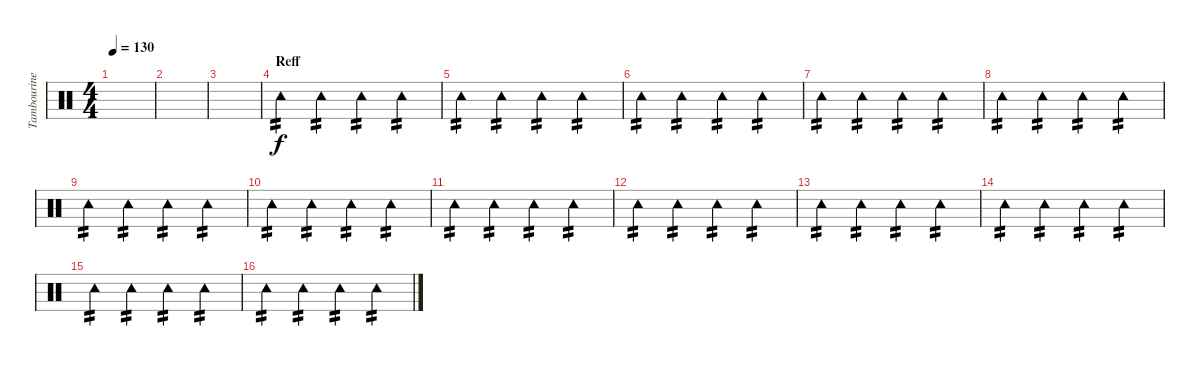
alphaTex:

\track ("Tambourine" "Tambourine") {instrument percussion}
\staff {score}
\articulation defaults
\ts (4 4)
\tempo 130
\clef neutral
\ks c
|
|
|
\section ("" "Reff")
"Tambourine (hit)".4{tp 2} "Tambourine (hit)".4{tp 2} "Tambourine (hit)".4{tp 2} "Tambourine (hit)".4{tp 2} |
"Tambourine (hit)".4{tp 2} "Tambourine (hit)".4{tp 2} "Tambourine (hit)".4{tp 2} "Tambourine (hit)".4{tp 2} |
"Tambourine (hit)".4{tp 2} "Tambourine (hit)".4{tp 2} "Tambourine (hit)".4{tp 2} "Tambourine (hit)".4{tp 2} |
"Tambourine (hit)".4{tp 2} "Tambourine (hit)".4{tp 2} "Tambourine (hit)".4{tp 2} "Tambourine (hit)".4{tp 2} |
"Tambourine (hit)".4{tp 2} "Tambourine (hit)".4{tp 2} "Tambourine (hit)".4{tp 2} "Tambourine (hit)".4{tp 2} |
"Tambourine (hit)".4{tp 2} "Tambourine (hit)".4{tp 2} "Tambourine (hit)".4{tp 2} "Tambourine (hit)".4{tp 2} |
"Tambourine (hit)".4{tp 2} "Tambourine (hit)".4{tp 2} "Tambourine (hit)".4{tp 2} "Tambourine (hit)".4{tp 2} |
"Tambourine (hit)".4{tp 2} "Tambourine (hit)".4{tp 2} "Tambourine (hit)".4{tp 2} "Tambourine (hit)".4{tp 2} |
"Tambourine (hit)".4{tp 2} "Tambourine (hit)".4{tp 2} "Tambourine (hit)".4{tp 2} "Tambourine (hit)".4{tp 2} |
"Tambourine (hit)".4{tp 2} "Tambourine (hit)".4{tp 2} "Tambourine (hit)".4{tp 2} "Tambourine (hit)".4{tp 2} |
"Tambourine (hit)".4{tp 2} "Tambourine (hit)".4{tp 2} "Tambourine (hit)".4{tp 2} "Tambourine (hit)".4{tp 2} |
"Tambourine (hit)".4{tp 2} "Tambourine (hit)".4{tp 2} "Tambourine (hit)".4{tp 2} "Tambourine (hit)".4{tp 2} |
"Tambourine (hit)".4{tp 2} "Tambourine (hit)".4{tp 2} "Tambourine (hit)".4{tp 2} "Tambourine (hit)".4{tp 2}
